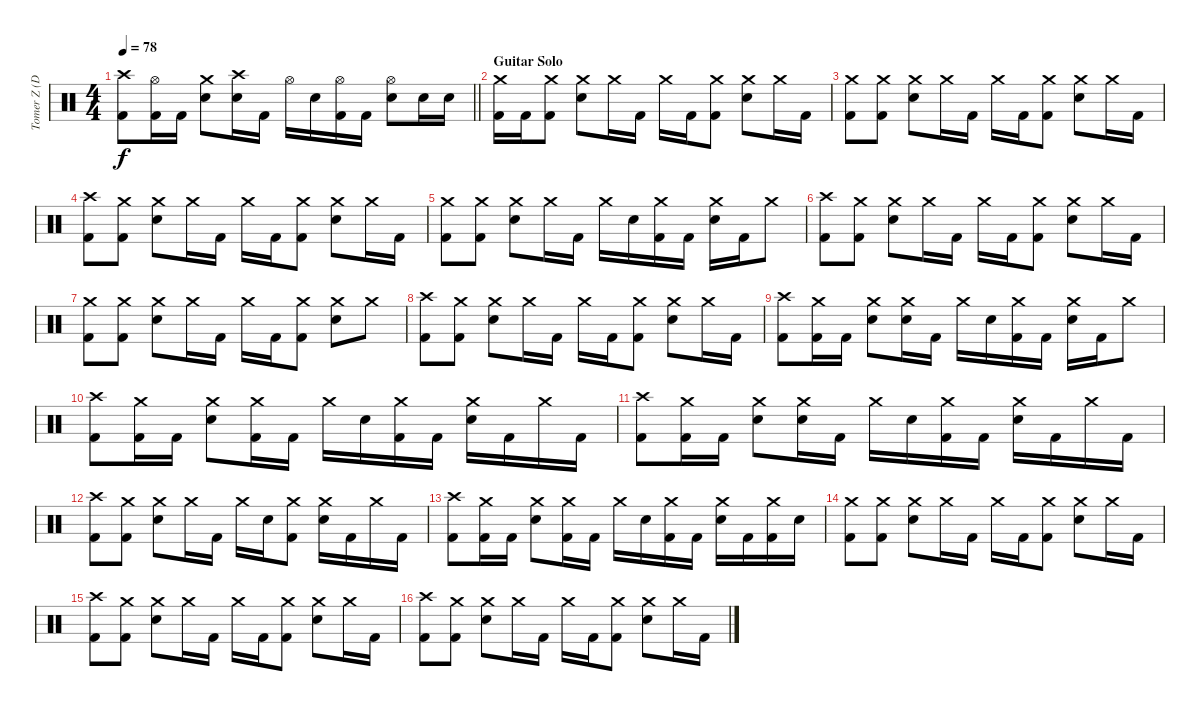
\track ("Tomer Z (Drums)" "Tomer Z (D") {instrument percussion}
\staff {score}
\articulation defaults
\ts (4 4)
\tempo 78
\clef neutral
\barLineRight lightlight
\ks c
("Crash high (hit)" "Kick (hit) 2").8{dy f} ("Hi-Hat (open)" "Kick (hit) 2").16 "Kick (hit) 2".16 ("Crash medium (hit)" "Snare (hit) 2").8 ("Crash high (hit)" "Snare (hit) 2").16 "Kick (hit) 2".16 "Hi-Hat (open)".16 "Snare (hit) 2".16 ("Hi-Hat (open)" "Kick (hit) 2").16 "Kick (hit) 2".16 ("Hi-Hat (open)" "Snare (hit) 2").8 "Snare (hit) 2".16 "Snare (hit) 2".16 |
\section ("" "Guitar Solo")
("Crash medium (hit)" "Kick (hit) 2").16 "Kick (hit) 2".16 ("Crash medium (hit)" "Kick (hit) 2").8 ("Crash medium (hit)" "Snare (hit) 2").8 "Crash medium (hit)".16 "Kick (hit) 2".16 "Crash medium (hit)".16 "Kick (hit) 2".16 ("Crash medium (hit)" "Kick (hit) 2").8 ("Crash medium (hit)" "Snare (hit) 2").8 "Crash medium (hit)".16 "Kick (hit) 2".16 |
("Crash medium (hit)" "Kick (hit) 2").8 ("Crash medium (hit)" "Kick (hit) 2").8 ("Crash medium (hit)" "Snare (hit) 2").8 "Crash medium (hit)".16 "Kick (hit) 2".16 "Crash medium (hit)".16 "Kick (hit) 2".16 ("Crash medium (hit)" "Kick (hit) 2").8 ("Crash medium (hit)" "Snare (hit) 2").8 "Crash medium (hit)".16 "Kick (hit) 2".16 |
("Crash high (hit)" "Kick (hit) 2").8 ("Crash medium (hit)" "Kick (hit) 2").8 ("Crash medium (hit)" "Snare (hit) 2").8 "Crash medium (hit)".16 "Kick (hit) 2".16 "Crash medium (hit)".16 "Kick (hit) 2".16 ("Crash medium (hit)" "Kick (hit) 2").8 ("Crash medium (hit)" "Snare (hit) 2").8 "Crash medium (hit)".16 "Kick (hit) 2".16 |
("Crash medium (hit)" "Kick (hit) 2").8 ("Crash medium (hit)" "Kick (hit) 2").8 ("Crash medium (hit)" "Snare (hit) 2").8 "Crash medium (hit)".16 "Kick (hit) 2".16 "Crash medium (hit)".16 "Snare (hit) 2".16 ("Crash medium (hit)" "Kick (hit) 2").16 "Kick (hit) 2".16 ("Crash medium (hit)" "Snare (hit) 2").16 "Kick (hit) 2".16 "Crash medium (hit)".8 |
("Crash high (hit)" "Kick (hit) 2").8 ("Crash medium (hit)" "Kick (hit) 2").8 ("Crash medium (hit)" "Snare (hit) 2").8 "Crash medium (hit)".16 "Kick (hit) 2".16 "Crash medium (hit)".16 "Kick (hit) 2".16 ("Crash medium (hit)" "Kick (hit) 2").8 ("Crash medium (hit)" "Snare (hit) 2").8 "Crash medium (hit)".16 "Kick (hit) 2".16 |
("Crash medium (hit)" "Kick (hit) 2").8 ("Crash medium (hit)" "Kick (hit) 2").8 ("Crash medium (hit)" "Snare (hit) 2").8 "Crash medium (hit)".16 "Kick (hit) 2".16 "Crash medium (hit)".16 "Kick (hit) 2".16 ("Crash medium (hit)" "Kick (hit) 2").8 ("Crash medium (hit)" "Snare (hit) 2").8 "Crash medium (hit)".8 |
("Crash high (hit)" "Kick (hit) 2").8 ("Crash medium (hit)" "Kick (hit) 2").8 ("Crash medium (hit)" "Snare (hit) 2").8 "Crash medium (hit)".16 "Kick (hit) 2".16 "Crash medium (hit)".16 "Kick (hit) 2".16 ("Crash medium (hit)" "Kick (hit) 2").8 ("Crash medium (hit)" "Snare (hit) 2").8 "Crash medium (hit)".16 "Kick (hit) 2".16 |
("Crash high (hit)" "Kick (hit) 2").8 ("Crash medium (hit)" "Kick (hit) 2").16 "Kick (hit) 2".16 ("Crash medium (hit)" "Snare (hit) 2").8 ("Crash medium (hit)" "Snare (hit) 2").16 "Kick (hit) 2".16 "Crash medium (hit)".16 "Snare (hit) 2".16 ("Crash medium (hit)" "Kick (hit) 2").16 "Kick (hit) 2".16 ("Crash medium (hit)" "Snare (hit) 2").16 "Kick (hit) 2".16 "Crash medium (hit)".8 |
("Crash high (hit)" "Kick (hit) 2").8 ("Crash medium (hit)" "Kick (hit) 2").16 "Kick (hit) 2".16 ("Crash medium (hit)" "Snare (hit) 2").8 ("Crash medium (hit)" "Kick (hit) 2").16 "Kick (hit) 2".16 "Crash medium (hit)".16 "Snare (hit) 2".16 ("Crash medium (hit)" "Kick (hit) 2").16 "Kick (hit) 2".16 ("Crash medium (hit)" "Snare (hit) 2").16 "Kick (hit) 2".16 "Crash medium (hit)".16 "Kick (hit) 2".16 |
("Crash high (hit)" "Kick (hit) 2").8 ("Crash medium (hit)" "Kick (hit) 2").16 "Kick (hit) 2".16 ("Crash medium (hit)" "Snare (hit) 2").8 ("Crash medium (hit)" "Snare (hit) 2").16 "Kick (hit) 2".16 "Crash medium (hit)".16 "Snare (hit) 2".16 ("Crash medium (hit)" "Kick (hit) 2").16 "Kick (hit) 2".16 ("Crash medium (hit)" "Snare (hit) 2").16 "Kick (hit) 2".16 "Crash medium (hit)".16 "Kick (hit) 2".16 |
("Crash high (hit)" "Kick (hit) 2").8 ("Crash medium (hit)" "Kick (hit) 2").8 ("Crash medium (hit)" "Snare (hit) 2").8 "Crash medium (hit)".16 "Kick (hit) 2".16 "Crash medium (hit)".16 "Snare (hit) 2".16 ("Crash medium (hit)" "Kick (hit) 2").8 ("Crash medium (hit)" "Snare (hit) 2").16 "Kick (hit) 2".16 "Crash medium (hit)".16 "Kick (hit) 2".16 |
("Crash high (hit)" "Kick (hit) 2").8 ("Crash medium (hit)" "Kick (hit) 2").16 "Kick (hit) 2".16 ("Crash medium (hit)" "Snare (hit) 2").8 ("Crash medium (hit)" "Kick (hit) 2").16 "Kick (hit) 2".16 "Crash medium (hit)".16 "Snare (hit) 2".16 ("Crash medium (hit)" "Kick (hit) 2").16 "Kick (hit) 2".16 ("Crash medium (hit)" "Snare (hit) 2").16 "Kick (hit) 2".16 ("Crash medium (hit)" "Kick (hit) 2").16 "Snare (hit) 2".16 |
("Crash medium (hit)" "Kick (hit) 2").8 ("Crash medium (hit)" "Kick (hit) 2").8 ("Crash medium (hit)" "Snare (hit) 2").8 "Crash medium (hit)".16 "Kick (hit) 2".16 "Crash medium (hit)".16 "Kick (hit) 2".16 ("Crash medium (hit)" "Kick (hit) 2").8 ("Crash medium (hit)" "Snare (hit) 2").8 "Crash medium (hit)".16 "Kick (hit) 2".16 |
("Crash high (hit)" "Kick (hit) 2").8 ("Crash medium (hit)" "Kick (hit) 2").8 ("Crash medium (hit)" "Snare (hit) 2").8 "Crash medium (hit)".16 "Kick (hit) 2".16 "Crash medium (hit)".16 "Kick (hit) 2".16 ("Crash medium (hit)" "Kick (hit) 2").8 ("Crash medium (hit)" "Snare (hit) 2").8 "Crash medium (hit)".16 "Kick (hit) 2".16 |
("Crash high (hit)" "Kick (hit) 2").8 ("Crash medium (hit)" "Kick (hit) 2").8 ("Crash medium (hit)" "Snare (hit) 2").8 "Crash medium (hit)".16 "Kick (hit) 2".16 "Crash medium (hit)".16 "Kick (hit) 2".16 ("Crash medium (hit)" "Kick (hit) 2").8 ("Crash medium (hit)" "Snare (hit) 2").8 "Crash medium (hit)".16 "Kick (hit) 2".16
